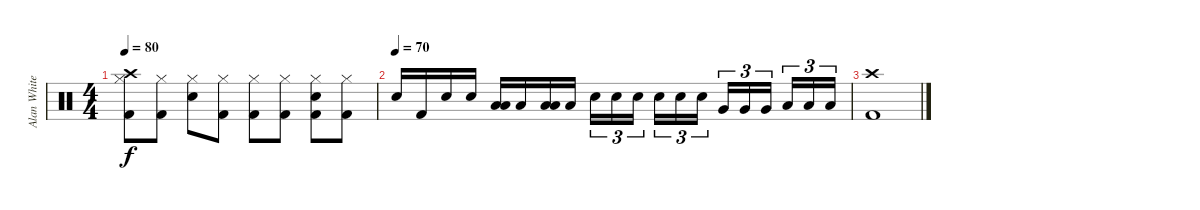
\track ("Alan White" "Alan White") {instrument percussion}
\staff {score}
\articulation defaults
\ts (4 4)
\tempo 80
\clef neutral
\ks c
("Hi-Hat (closed)" "Crash high (hit)" "Kick (hit) 2").8{dy f} ("Hi-Hat (closed)" "Kick (hit) 2").8 ("Hi-Hat (closed)" "Snare (hit) 2").8 ("Hi-Hat (closed)" "Kick (hit) 2").8 ("Hi-Hat (closed)" "Kick (hit) 2").8 ("Hi-Hat (closed)" "Kick (hit) 2").8 ("Hi-Hat (closed)" "Snare (hit) 2" "Kick (hit) 2").8 ("Hi-Hat (closed)" "Kick (hit) 2").8 |
\tempo (70)
"Snare (hit) 2".16 "Kick (hit) 2".16 "Snare (hit) 2".16 "Snare (hit) 2".16 ("Low Tom (hit)" "Low Floor Tom (hit)").16 "Low Tom (hit)".16 ("Low Tom (hit)" "Low Floor Tom (hit)").16 "Low Tom (hit)".16 "Snare (hit) 2".16{tu (3 2)} "Snare (hit) 2".16{tu (3 2)} "Snare (hit) 2".16{tu (3 2)} "Snare (hit) 2".16{tu (3 2)} "Snare (hit) 2".16{tu (3 2)} "Snare (hit) 2".16{tu (3 2)} "Very Low Tom (hit)".16{tu (3 2)} "Very Low Tom (hit)".16{tu (3 2)} "Very Low Tom (hit)".16{tu (3 2)} "Low Floor Tom (hit)".16{tu (3 2)} "Low Floor Tom (hit)".16{tu (3 2)} "Low Floor Tom (hit)".16{tu (3 2)} |
("Crash high (hit)" "Kick (hit) 2").1
